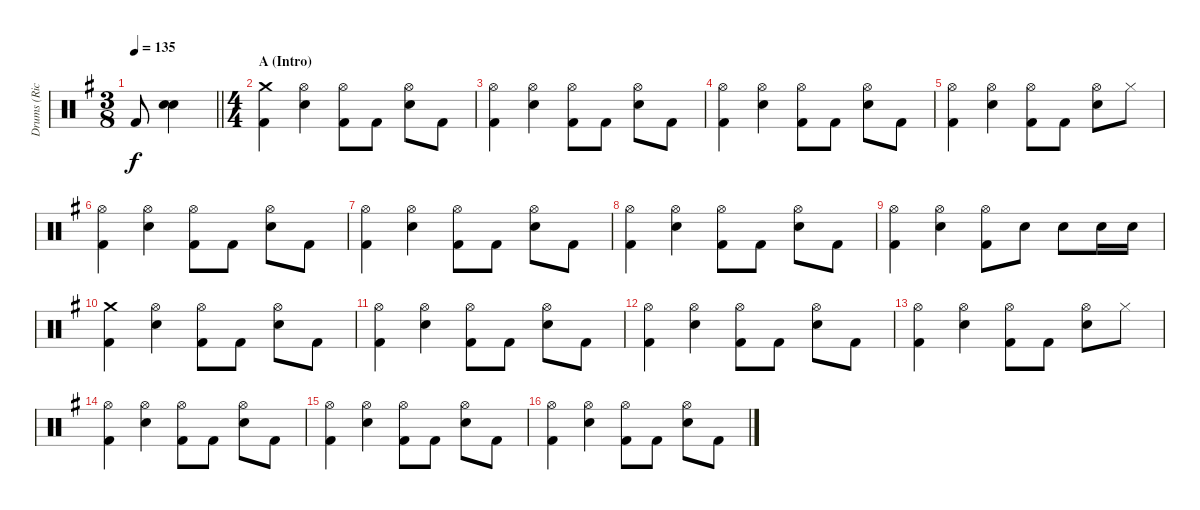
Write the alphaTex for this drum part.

\track ("Drums (Richard Evensand)" "Drums (Ric") {instrument percussion}
\staff {score}
\articulation defaults
\ts (3 8)
\tempo 135
\clef neutral
\barLineRight lightlight
\ks eminor "Kick (hit) 2".8{dy f}
("Snare (hit) 2" "Electric Snare (hit)").4 |
\ts (4 4)
\section ("" "A (Intro)")
("Crash medium (hit)" "Kick (hit) 2").4 ("Hi-Hat (open)" "Electric Snare (hit)").4 ("Hi-Hat (open)" "Kick (hit) 2").8 "Kick (hit) 2".8 ("Hi-Hat (open)" "Electric Snare (hit)").8 "Kick (hit) 2".8 |
("Hi-Hat (open)" "Kick (hit) 2").4 ("Hi-Hat (open)" "Electric Snare (hit)").4 ("Hi-Hat (open)" "Kick (hit) 2").8 "Kick (hit) 2".8 ("Hi-Hat (open)" "Electric Snare (hit)").8 "Kick (hit) 2".8 |
("Hi-Hat (open)" "Kick (hit) 2").4 ("Hi-Hat (open)" "Electric Snare (hit)").4 ("Hi-Hat (open)" "Kick (hit) 2").8 "Kick (hit) 2".8 ("Hi-Hat (open)" "Electric Snare (hit)").8 "Kick (hit) 2".8 |
("Hi-Hat (open)" "Kick (hit) 2").4 ("Hi-Hat (open)" "Electric Snare (hit)").4 ("Hi-Hat (open)" "Kick (hit) 2").8 "Kick (hit) 2".8 ("Hi-Hat (open)" "Electric Snare (hit)").8 "Hi-Hat (closed)".8 |
("Hi-Hat (open)" "Kick (hit) 2").4 ("Hi-Hat (open)" "Electric Snare (hit)").4 ("Hi-Hat (open)" "Kick (hit) 2").8 "Kick (hit) 2".8 ("Hi-Hat (open)" "Electric Snare (hit)").8 "Kick (hit) 2".8 |
("Hi-Hat (open)" "Kick (hit) 2").4 ("Hi-Hat (open)" "Electric Snare (hit)").4 ("Hi-Hat (open)" "Kick (hit) 2").8 "Kick (hit) 2".8 ("Hi-Hat (open)" "Electric Snare (hit)").8 "Kick (hit) 2".8 |
("Hi-Hat (open)" "Kick (hit) 2").4 ("Hi-Hat (open)" "Electric Snare (hit)").4 ("Hi-Hat (open)" "Kick (hit) 2").8 "Kick (hit) 2".8 ("Hi-Hat (open)" "Electric Snare (hit)").8 "Kick (hit) 2".8 |
("Hi-Hat (open)" "Kick (hit) 2").4 ("Hi-Hat (open)" "Electric Snare (hit)").4 ("Hi-Hat (open)" "Kick (hit) 2").8 "Electric Snare (hit)".8 "Electric Snare (hit)".8 "Electric Snare (hit)".16 "Electric Snare (hit)".16 |
("Crash medium (hit)" "Kick (hit) 2").4 ("Hi-Hat (open)" "Electric Snare (hit)").4 ("Hi-Hat (open)" "Kick (hit) 2").8 "Kick (hit) 2".8 ("Hi-Hat (open)" "Electric Snare (hit)").8 "Kick (hit) 2".8 |
("Hi-Hat (open)" "Kick (hit) 2").4 ("Hi-Hat (open)" "Electric Snare (hit)").4 ("Hi-Hat (open)" "Kick (hit) 2").8 "Kick (hit) 2".8 ("Hi-Hat (open)" "Electric Snare (hit)").8 "Kick (hit) 2".8 |
("Hi-Hat (open)" "Kick (hit) 2").4 ("Hi-Hat (open)" "Electric Snare (hit)").4 ("Hi-Hat (open)" "Kick (hit) 2").8 "Kick (hit) 2".8 ("Hi-Hat (open)" "Electric Snare (hit)").8 "Kick (hit) 2".8 |
("Hi-Hat (open)" "Kick (hit) 2").4 ("Hi-Hat (open)" "Electric Snare (hit)").4 ("Hi-Hat (open)" "Kick (hit) 2").8 "Kick (hit) 2".8 ("Hi-Hat (open)" "Electric Snare (hit)").8 "Hi-Hat (closed)".8 |
("Hi-Hat (open)" "Kick (hit) 2").4 ("Hi-Hat (open)" "Electric Snare (hit)").4 ("Hi-Hat (open)" "Kick (hit) 2").8 "Kick (hit) 2".8 ("Hi-Hat (open)" "Electric Snare (hit)").8 "Kick (hit) 2".8 |
("Hi-Hat (open)" "Kick (hit) 2").4 ("Hi-Hat (open)" "Electric Snare (hit)").4 ("Hi-Hat (open)" "Kick (hit) 2").8 "Kick (hit) 2".8 ("Hi-Hat (open)" "Electric Snare (hit)").8 "Kick (hit) 2".8 |
("Hi-Hat (open)" "Kick (hit) 2").4 ("Hi-Hat (open)" "Electric Snare (hit)").4 ("Hi-Hat (open)" "Kick (hit) 2").8 "Kick (hit) 2".8 ("Hi-Hat (open)" "Electric Snare (hit)").8 "Kick (hit) 2".8
